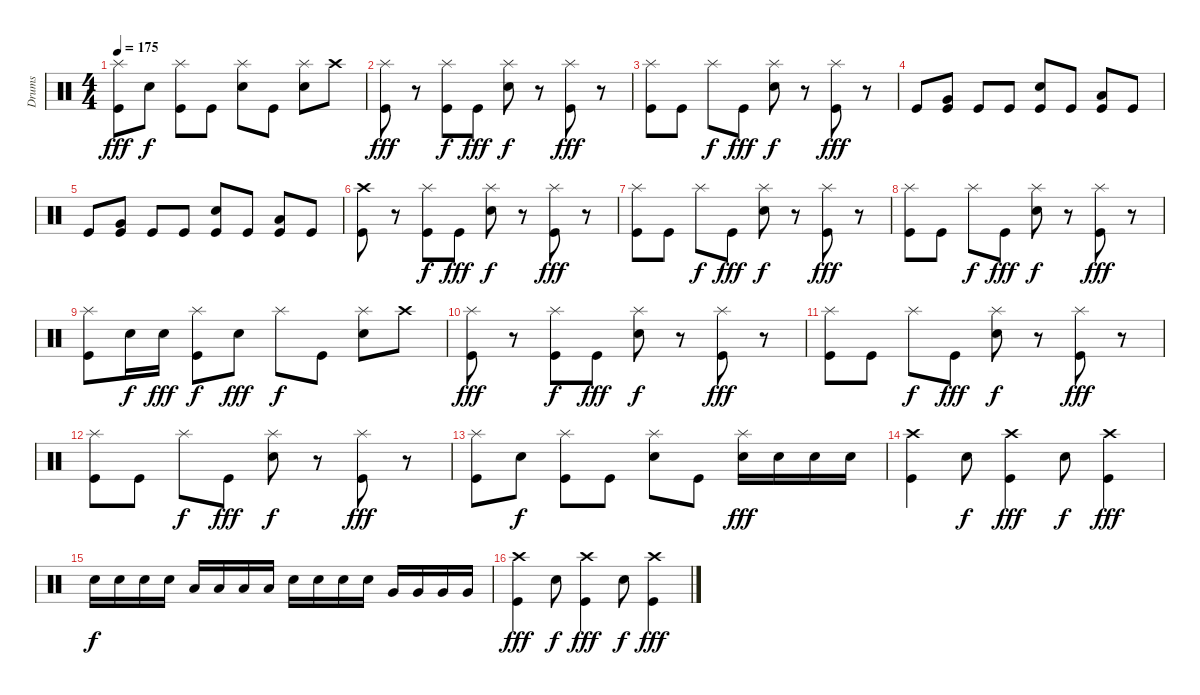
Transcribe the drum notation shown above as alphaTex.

\track ("Drums" "Drums") {instrument percussion}
\staff {score}
\articulation defaults
\ts (4 4)
\tempo 175
\clef neutral
\ks c
("Splash (hit)" "Kick (hit)").8{dy fff} "Electric Snare (hit)".8{dy f} ("Splash (hit)" "Kick (hit)").8 "Kick (hit)".8 ("Splash (hit)" "Electric Snare (hit)").8 "Kick (hit)".8 ("Splash (hit)" "Electric Snare (hit)").8 "Crash high (hit)".8 |
("Splash (hit)" "Kick (hit)").8{dy fff} r.8 ("Splash (hit)" "Kick (hit)").8{dy f} "Kick (hit)".8{dy fff} ("Splash (hit)" "Electric Snare (hit)").8{dy f} r.8 ("Splash (hit)" "Kick (hit)").8{dy fff} r.8 |
("Splash (hit)" "Kick (hit)").8 "Kick (hit)".8 "Splash (hit)".8{dy f} "Kick (hit)".8{dy fff} ("Splash (hit)" "Electric Snare (hit)").8{dy f} r.8 ("Splash (hit)" "Kick (hit)").8{dy fff} r.8 |
"Kick (hit)".8 ("Very Low Tom (hit)" "Kick (hit)").8 "Kick (hit)".8 "Kick (hit)".8 ("Electric Snare (hit)" "Kick (hit)").8 "Kick (hit)".8 ("Low Floor Tom (hit)" "Kick (hit)").8 "Kick (hit)".8 |
"Kick (hit)".8 ("Very Low Tom (hit)" "Kick (hit)").8 "Kick (hit)".8 "Kick (hit)".8 ("Electric Snare (hit)" "Kick (hit)").8 "Kick (hit)".8 ("Low Floor Tom (hit)" "Kick (hit)").8 "Kick (hit)".8 |
("Crash high (hit)" "Kick (hit)").8 r.8 ("Splash (hit)" "Kick (hit)").8{dy f} "Kick (hit)".8{dy fff} ("Splash (hit)" "Electric Snare (hit)").8{dy f} r.8 ("Splash (hit)" "Kick (hit)").8{dy fff} r.8 |
("Splash (hit)" "Kick (hit)").8 "Kick (hit)".8 "Splash (hit)".8{dy f} "Kick (hit)".8{dy fff} ("Splash (hit)" "Electric Snare (hit)").8{dy f} r.8 ("Splash (hit)" "Kick (hit)").8{dy fff} r.8 |
("Splash (hit)" "Kick (hit)").8 "Kick (hit)".8 "Splash (hit)".8{dy f} "Kick (hit)".8{dy fff} ("Splash (hit)" "Electric Snare (hit)").8{dy f} r.8 ("Splash (hit)" "Kick (hit)").8{dy fff} r.8 |
("Splash (hit)" "Kick (hit)").8 "Electric Snare (hit)".16{dy f} "Electric Snare (hit)".16{dy fff} ("Splash (hit)" "Kick (hit)").8{dy f} "Electric Snare (hit)".8{dy fff} "Splash (hit)".8{dy f} "Kick (hit)".8 ("Splash (hit)" "Electric Snare (hit)").8 "Crash high (hit)".8 |
("Splash (hit)" "Kick (hit)").8{dy fff} r.8 ("Splash (hit)" "Kick (hit)").8{dy f} "Kick (hit)".8{dy fff} ("Splash (hit)" "Electric Snare (hit)").8{dy f} r.8 ("Splash (hit)" "Kick (hit)").8{dy fff} r.8 |
("Splash (hit)" "Kick (hit)").8 "Kick (hit)".8 "Splash (hit)".8{dy f} "Kick (hit)".8{dy fff} ("Splash (hit)" "Electric Snare (hit)").8{dy f} r.8 ("Splash (hit)" "Kick (hit)").8{dy fff} r.8 |
("Splash (hit)" "Kick (hit)").8 "Kick (hit)".8 "Splash (hit)".8{dy f} "Kick (hit)".8{dy fff} ("Splash (hit)" "Electric Snare (hit)").8{dy f} r.8 ("Splash (hit)" "Kick (hit)").8{dy fff} r.8 |
("Splash (hit)" "Kick (hit)").8 "Electric Snare (hit)".8{dy f} ("Splash (hit)" "Kick (hit)").8 "Kick (hit)".8 ("Splash (hit)" "Electric Snare (hit)").8 "Kick (hit)".8 ("Splash (hit)" "Electric Snare (hit)").16{dy fff} "Electric Snare (hit)".16 "Electric Snare (hit)".16 "Electric Snare (hit)".16 |
("Crash high (hit)" "Kick (hit)").4 "Electric Snare (hit)".8{dy f} ("Crash high (hit)" "Kick (hit)").4{dy fff} "Electric Snare (hit)".8{dy f} ("Crash high (hit)" "Kick (hit)").4{dy fff} |
"Electric Snare (hit)".16{dy f} "Electric Snare (hit)".16 "Electric Snare (hit)".16 "Electric Snare (hit)".16 "Low Tom (hit)".16 "Low Tom (hit)".16 "Low Tom (hit)".16 "Low Tom (hit)".16 "Electric Snare (hit)".16 "Electric Snare (hit)".16 "Electric Snare (hit)".16 "Electric Snare (hit)".16 "Very Low Tom (hit)".16 "Very Low Tom (hit)".16 "Very Low Tom (hit)".16 "Very Low Tom (hit)".16 |
("Crash high (hit)" "Kick (hit)").4{dy fff} "Electric Snare (hit)".8{dy f} ("Crash high (hit)" "Kick (hit)").4{dy fff} "Electric Snare (hit)".8{dy f} ("Crash high (hit)" "Kick (hit)").4{dy fff}
